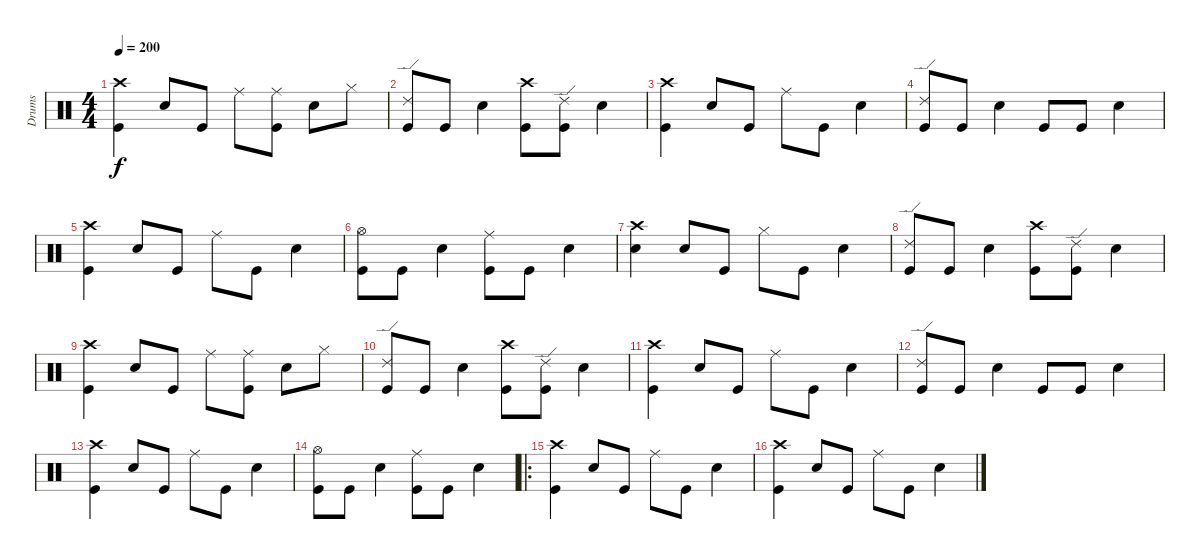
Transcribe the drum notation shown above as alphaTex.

\track ("Drums" "Drums") {instrument percussion}
\staff {score}
\articulation defaults
\ts (4 4)
\tempo 200
\clef neutral
\ks c
("Crash high (hit)" "Kick (hit)").4{dy f} "Snare (hit) 2".8 "Kick (hit)".8 "Ride (middle)".8 ("Ride (middle)" "Kick (hit)").8 "Snare (hit) 2".8 "Hi-Hat (closed)".8 |
("Ride (edge) 2" "Kick (hit)").8 "Kick (hit)".8 "Snare (hit) 2".4 ("Crash high (hit)" "Kick (hit)").8 ("Ride (edge) 2" "Kick (hit)").8 "Snare (hit) 2".4 |
("Crash high (hit)" "Kick (hit)").4 "Snare (hit) 2".8 "Kick (hit)".8 "Ride (middle)".8 "Kick (hit)".8 "Snare (hit) 2".4 |
("Ride (edge) 2" "Kick (hit)").8 "Kick (hit)".8 "Snare (hit) 2".4 "Kick (hit)".8 "Kick (hit)".8 "Snare (hit) 2".4 |
("Crash high (hit)" "Kick (hit)").4 "Snare (hit) 2".8 "Kick (hit)".8 "Ride (middle)".8 "Kick (hit)".8 "Snare (hit) 2".4 |
("Hi-Hat (open)" "Kick (hit)").8 "Kick (hit)".8 "Snare (hit) 2".4 ("Ride (middle)" "Kick (hit)").8 "Kick (hit)".8 "Snare (hit) 2".4 |
("Crash high (hit)" "Snare (hit) 2").4 "Snare (hit) 2".8 "Kick (hit)".8 "Hi-Hat (closed)".8 "Kick (hit)".8 "Snare (hit) 2".4 |
("Ride (edge) 2" "Kick (hit)").8 "Kick (hit)".8 "Snare (hit) 2".4 ("Crash high (hit)" "Kick (hit)").8 ("Ride (edge) 2" "Kick (hit)").8 "Snare (hit) 2".4 |
("Crash high (hit)" "Kick (hit)").4 "Snare (hit) 2".8 "Kick (hit)".8 "Ride (middle)".8 ("Ride (middle)" "Kick (hit)").8 "Snare (hit) 2".8 "Hi-Hat (closed)".8 |
("Ride (edge) 2" "Kick (hit)").8 "Kick (hit)".8 "Snare (hit) 2".4 ("Crash high (hit)" "Kick (hit)").8 ("Ride (edge) 2" "Kick (hit)").8 "Snare (hit) 2".4 |
("Crash high (hit)" "Kick (hit)").4 "Snare (hit) 2".8 "Kick (hit)".8 "Ride (middle)".8 "Kick (hit)".8 "Snare (hit) 2".4 |
("Ride (edge) 2" "Kick (hit)").8 "Kick (hit)".8 "Snare (hit) 2".4 "Kick (hit)".8 "Kick (hit)".8 "Snare (hit) 2".4 |
("Crash high (hit)" "Kick (hit)").4 "Snare (hit) 2".8 "Kick (hit)".8 "Ride (middle)".8 "Kick (hit)".8 "Snare (hit) 2".4 |
("Hi-Hat (open)" "Kick (hit)").8 "Kick (hit)".8 "Snare (hit) 2".4 ("Ride (middle)" "Kick (hit)").8 "Kick (hit)".8 "Snare (hit) 2".4 |
\ro
("Crash high (hit)" "Kick (hit)").4 "Snare (hit) 2".8 "Kick (hit)".8 "Ride (middle)".8 "Kick (hit)".8 "Snare (hit) 2".4 |
("Crash high (hit)" "Kick (hit)").4 "Snare (hit) 2".8 "Kick (hit)".8 "Ride (middle)".8 "Kick (hit)".8 "Snare (hit) 2".4
